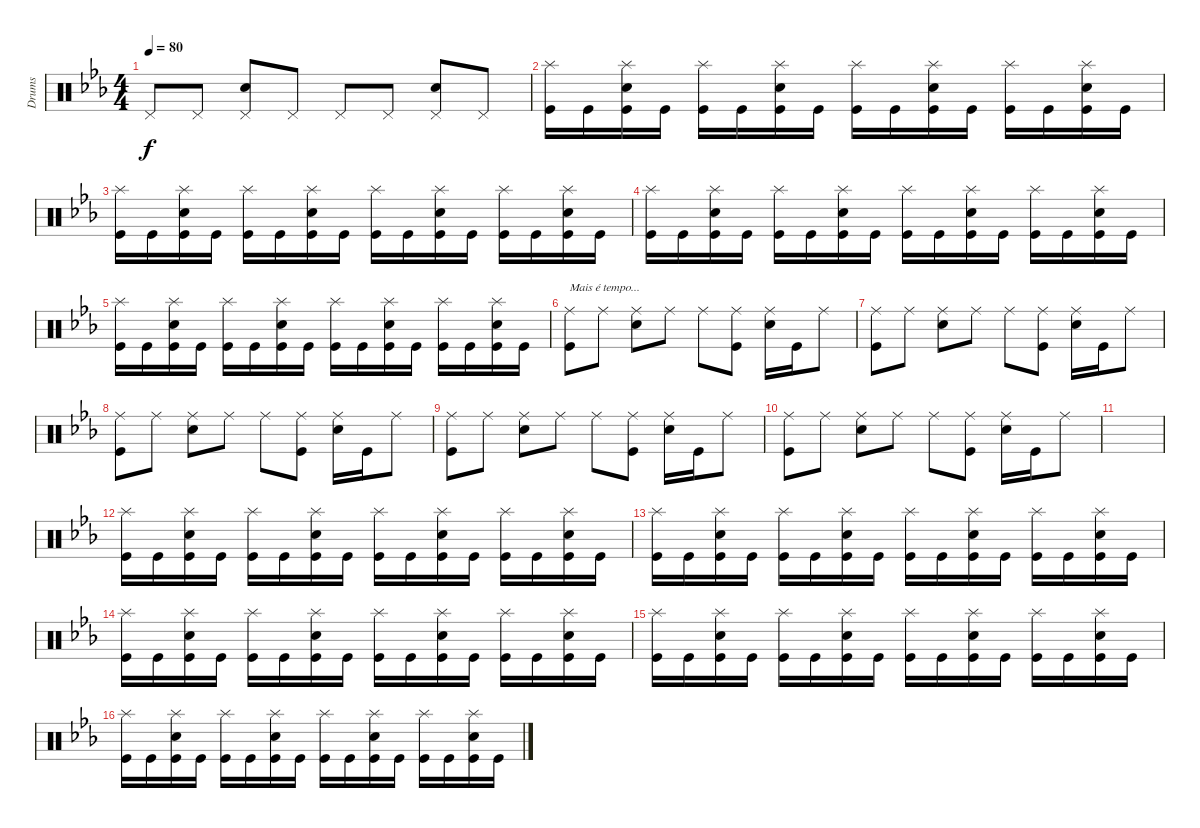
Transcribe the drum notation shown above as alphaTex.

\track ("Drums" "Drums") {instrument percussion}
\staff {score}
\articulation defaults
\ts (4 4)
\tempo 80
\clef neutral
\ks eb "Pedal Hi-Hat (hit)".8{dy f} "Pedal Hi-Hat (hit)".8
("Pedal Hi-Hat (hit)" "Electric Snare (hit)").8 "Pedal Hi-Hat (hit)".8 "Pedal Hi-Hat (hit)".8 "Pedal Hi-Hat (hit)".8 ("Pedal Hi-Hat (hit)" "Electric Snare (hit)").8 "Pedal Hi-Hat (hit)".8 |
("Splash (hit)" "Kick (hit)").16 "Kick (hit)".16 ("Splash (hit)" "Electric Snare (hit)" "Kick (hit)").16 "Kick (hit)".16 ("Splash (hit)" "Kick (hit)").16 "Kick (hit)".16 ("Splash (hit)" "Electric Snare (hit)" "Kick (hit)").16 "Kick (hit)".16 ("Splash (hit)" "Kick (hit)").16 "Kick (hit)".16 ("Splash (hit)" "Electric Snare (hit)" "Kick (hit)").16 "Kick (hit)".16 ("Splash (hit)" "Kick (hit)").16 "Kick (hit)".16 ("Splash (hit)" "Electric Snare (hit)" "Kick (hit)").16 "Kick (hit)".16 |
("Splash (hit)" "Kick (hit)").16 "Kick (hit)".16 ("Splash (hit)" "Electric Snare (hit)" "Kick (hit)").16 "Kick (hit)".16 ("Splash (hit)" "Kick (hit)").16 "Kick (hit)".16 ("Splash (hit)" "Electric Snare (hit)" "Kick (hit)").16 "Kick (hit)".16 ("Splash (hit)" "Kick (hit)").16 "Kick (hit)".16 ("Splash (hit)" "Electric Snare (hit)" "Kick (hit)").16 "Kick (hit)".16 ("Splash (hit)" "Kick (hit)").16 "Kick (hit)".16 ("Splash (hit)" "Electric Snare (hit)" "Kick (hit)").16 "Kick (hit)".16 |
("Splash (hit)" "Kick (hit)").16 "Kick (hit)".16 ("Splash (hit)" "Electric Snare (hit)" "Kick (hit)").16 "Kick (hit)".16 ("Splash (hit)" "Kick (hit)").16 "Kick (hit)".16 ("Splash (hit)" "Electric Snare (hit)" "Kick (hit)").16 "Kick (hit)".16 ("Splash (hit)" "Kick (hit)").16 "Kick (hit)".16 ("Splash (hit)" "Electric Snare (hit)" "Kick (hit)").16 "Kick (hit)".16 ("Splash (hit)" "Kick (hit)").16 "Kick (hit)".16 ("Splash (hit)" "Electric Snare (hit)" "Kick (hit)").16 "Kick (hit)".16 |
("Splash (hit)" "Kick (hit)").16 "Kick (hit)".16 ("Splash (hit)" "Electric Snare (hit)" "Kick (hit)").16 "Kick (hit)".16 ("Splash (hit)" "Kick (hit)").16 "Kick (hit)".16 ("Splash (hit)" "Electric Snare (hit)" "Kick (hit)").16 "Kick (hit)".16 ("Splash (hit)" "Kick (hit)").16 "Kick (hit)".16 ("Splash (hit)" "Electric Snare (hit)" "Kick (hit)").16 "Kick (hit)".16 ("Splash (hit)" "Kick (hit)").16 "Kick (hit)".16 ("Splash (hit)" "Electric Snare (hit)" "Kick (hit)").16 "Kick (hit)".16 |
("Ride (middle)" "Kick (hit)").8{txt "Mais é tempo..."} "Ride (middle)".8 ("Ride (middle)" "Electric Snare (hit)").8 "Ride (middle)".8 "Ride (middle)".8 ("Ride (middle)" "Kick (hit)").8 ("Ride (middle)" "Electric Snare (hit)").16 "Kick (hit)".16 "Ride (middle)".8 |
("Ride (middle)" "Kick (hit)").8 "Ride (middle)".8 ("Ride (middle)" "Electric Snare (hit)").8 "Ride (middle)".8 "Ride (middle)".8 ("Ride (middle)" "Kick (hit)").8 ("Ride (middle)" "Electric Snare (hit)").16 "Kick (hit)".16 "Ride (middle)".8 |
("Ride (middle)" "Kick (hit)").8 "Ride (middle)".8 ("Ride (middle)" "Electric Snare (hit)").8 "Ride (middle)".8 "Ride (middle)".8 ("Ride (middle)" "Kick (hit)").8 ("Ride (middle)" "Electric Snare (hit)").16 "Kick (hit)".16 "Ride (middle)".8 |
("Ride (middle)" "Kick (hit)").8 "Ride (middle)".8 ("Ride (middle)" "Electric Snare (hit)").8 "Ride (middle)".8 "Ride (middle)".8 ("Ride (middle)" "Kick (hit)").8 ("Ride (middle)" "Electric Snare (hit)").16 "Kick (hit)".16 "Ride (middle)".8 |
("Ride (middle)" "Kick (hit)").8 "Ride (middle)".8 ("Ride (middle)" "Electric Snare (hit)").8 "Ride (middle)".8 "Ride (middle)".8 ("Ride (middle)" "Kick (hit)").8 ("Ride (middle)" "Electric Snare (hit)").16 "Kick (hit)".16 "Ride (middle)".8 |
|
("Splash (hit)" "Kick (hit)").16 "Kick (hit)".16 ("Splash (hit)" "Electric Snare (hit)" "Kick (hit)").16 "Kick (hit)".16 ("Splash (hit)" "Kick (hit)").16 "Kick (hit)".16 ("Splash (hit)" "Electric Snare (hit)" "Kick (hit)").16 "Kick (hit)".16 ("Splash (hit)" "Kick (hit)").16 "Kick (hit)".16 ("Splash (hit)" "Electric Snare (hit)" "Kick (hit)").16 "Kick (hit)".16 ("Splash (hit)" "Kick (hit)").16 "Kick (hit)".16 ("Splash (hit)" "Electric Snare (hit)" "Kick (hit)").16 "Kick (hit)".16 |
("Splash (hit)" "Kick (hit)").16 "Kick (hit)".16 ("Splash (hit)" "Electric Snare (hit)" "Kick (hit)").16 "Kick (hit)".16 ("Splash (hit)" "Kick (hit)").16 "Kick (hit)".16 ("Splash (hit)" "Electric Snare (hit)" "Kick (hit)").16 "Kick (hit)".16 ("Splash (hit)" "Kick (hit)").16 "Kick (hit)".16 ("Splash (hit)" "Electric Snare (hit)" "Kick (hit)").16 "Kick (hit)".16 ("Splash (hit)" "Kick (hit)").16 "Kick (hit)".16 ("Splash (hit)" "Electric Snare (hit)" "Kick (hit)").16 "Kick (hit)".16 |
("Splash (hit)" "Kick (hit)").16 "Kick (hit)".16 ("Splash (hit)" "Electric Snare (hit)" "Kick (hit)").16 "Kick (hit)".16 ("Splash (hit)" "Kick (hit)").16 "Kick (hit)".16 ("Splash (hit)" "Electric Snare (hit)" "Kick (hit)").16 "Kick (hit)".16 ("Splash (hit)" "Kick (hit)").16 "Kick (hit)".16 ("Splash (hit)" "Electric Snare (hit)" "Kick (hit)").16 "Kick (hit)".16 ("Splash (hit)" "Kick (hit)").16 "Kick (hit)".16 ("Splash (hit)" "Electric Snare (hit)" "Kick (hit)").16 "Kick (hit)".16 |
("Splash (hit)" "Kick (hit)").16 "Kick (hit)".16 ("Splash (hit)" "Electric Snare (hit)" "Kick (hit)").16 "Kick (hit)".16 ("Splash (hit)" "Kick (hit)").16 "Kick (hit)".16 ("Splash (hit)" "Electric Snare (hit)" "Kick (hit)").16 "Kick (hit)".16 ("Splash (hit)" "Kick (hit)").16 "Kick (hit)".16 ("Splash (hit)" "Electric Snare (hit)" "Kick (hit)").16 "Kick (hit)".16 ("Splash (hit)" "Kick (hit)").16 "Kick (hit)".16 ("Splash (hit)" "Electric Snare (hit)" "Kick (hit)").16 "Kick (hit)".16 |
("Splash (hit)" "Kick (hit)").16 "Kick (hit)".16 ("Splash (hit)" "Electric Snare (hit)" "Kick (hit)").16 "Kick (hit)".16 ("Splash (hit)" "Kick (hit)").16 "Kick (hit)".16 ("Splash (hit)" "Electric Snare (hit)" "Kick (hit)").16 "Kick (hit)".16 ("Splash (hit)" "Kick (hit)").16 "Kick (hit)".16 ("Splash (hit)" "Electric Snare (hit)" "Kick (hit)").16 "Kick (hit)".16 ("Splash (hit)" "Kick (hit)").16 "Kick (hit)".16 ("Splash (hit)" "Electric Snare (hit)" "Kick (hit)").16 "Kick (hit)".16
